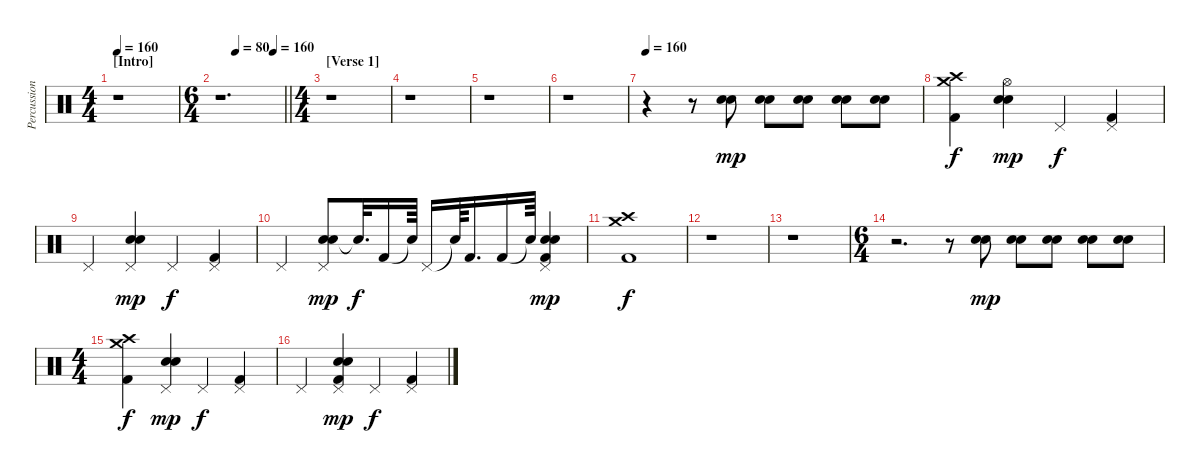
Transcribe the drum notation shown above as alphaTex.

\track ("Percussion" "Percussion") {instrument percussion}
\staff {score}
\articulation defaults
\ts (4 4)
\section ("" "[Intro]")
\tempo 160
\tempo 109
\tempo 160
\clef neutral
\ks c
r.1{dy mp} |
\ts (6 4)
\tempo (80 0.25)
\tempo (160 0.8333333333333334)
\barLineRight lightlight
r.1{d} |
\ts (4 4)
\section ("" "[Verse 1]")
r.1 |
r.1 |
r.1 |
r.1 |
\tempo 160
r.4 r.8 ("Snare (hit) 2" "Electric Snare (hit)").8 ("Snare (hit) 2" "Electric Snare (hit)").8 ("Snare (hit) 2" "Electric Snare (hit)").8 ("Snare (hit) 2" "Electric Snare (hit)").8 ("Snare (hit) 2" "Electric Snare (hit)").8 |
("Crash medium (hit)" "Kick (hit) 2" "Crash high (hit)").4{dy f} ("Snare (hit) 2" "Electric Snare (hit)" "Hi-Hat (open)").4{dy mp} "Pedal Hi-Hat (hit)".4{dy f} ("Pedal Hi-Hat (hit)" "Kick (hit) 2").4 |
"Pedal Hi-Hat (hit)".4 ("Snare (hit) 2" "Pedal Hi-Hat (hit)" "Electric Snare (hit)").4{dy mp} "Pedal Hi-Hat (hit)".4{dy f} ("Kick (hit) 2" "Pedal Hi-Hat (hit)").4 |
"Pedal Hi-Hat (hit)".4 ("Snare (hit) 2" "Electric Snare (hit)" "Pedal Hi-Hat (hit)").8{dy mp} "Snare (hit)"{t}.32{d dy f} "Kick (hit) 2".16 "Snare (hit)"{t}.64 "Pedal Hi-Hat (hit)".16 "Snare (hit)"{t}.64 "Kick (hit) 2".16{d} "Kick (hit) 2".16 "Snare (hit)"{t}.64 ("Snare (hit) 2" "Electric Snare (hit)" "Pedal Hi-Hat (hit)" "Kick (hit) 2").4{dy mp} |
("Kick (hit) 2" "Crash high (hit)" "Crash medium (hit)").1{dy f} |
r.1 |
r.1 |
\ts (6 4)
r.2{d} r.8 ("Snare (hit) 2" "Electric Snare (hit)").8{dy mp} ("Snare (hit) 2" "Electric Snare (hit)").8 ("Snare (hit) 2" "Electric Snare (hit)").8 ("Snare (hit) 2" "Electric Snare (hit)").8 ("Snare (hit) 2" "Electric Snare (hit)").8 |
\ts (4 4)
("Crash medium (hit)" "Kick (hit) 2" "Crash high (hit)").4{dy f} ("Snare (hit) 2" "Electric Snare (hit)" "Pedal Hi-Hat (hit)").4{dy mp} "Pedal Hi-Hat (hit)".4{dy f} ("Pedal Hi-Hat (hit)" "Kick (hit) 2").4 |
"Pedal Hi-Hat (hit)".4 ("Snare (hit) 2" "Pedal Hi-Hat (hit)" "Kick (hit) 2" "Electric Snare (hit)").4{dy mp} "Pedal Hi-Hat (hit)".4{dy f} ("Kick (hit) 2" "Pedal Hi-Hat (hit)").4
